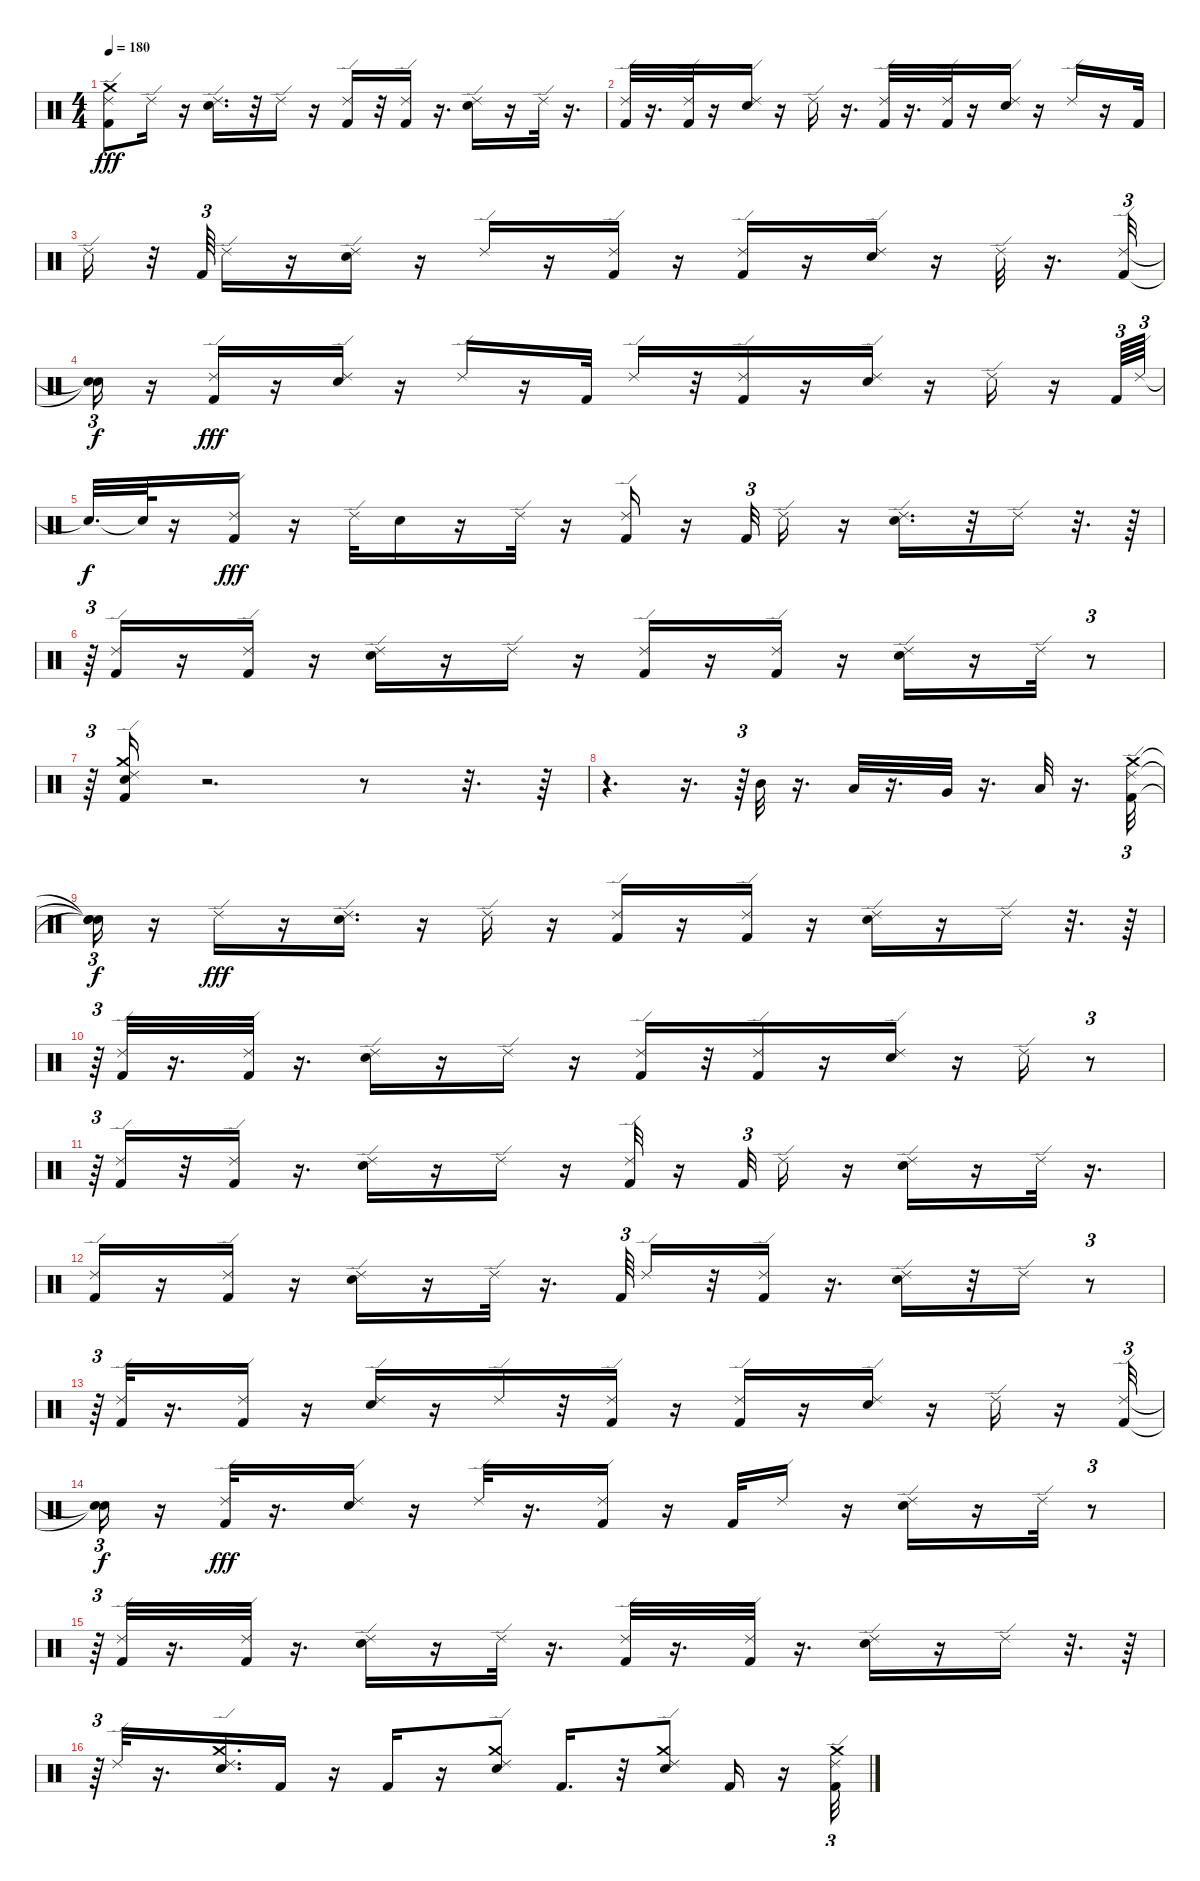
\track "" {instrument percussion}
\staff {score}
\articulation defaults
\ts (4 4)
\tempo 180
\clef neutral
\ks c
("Kick (hit) 2" "Ride (edge) 2" "Crash medium (hit)").8{dy fff} "Ride (edge) 2".16 r.16 ("Ride (edge) 2" "Snare (hit) 2").16{d} r.32 "Ride (edge) 2".16 r.16 ("Kick (hit) 2" "Ride (edge) 2").16 r.32 ("Kick (hit) 2" "Ride (edge) 2").16 r.16{d} ("Ride (edge) 2" "Snare (hit) 2").16 r.16 "Ride (edge) 2".32 r.16{d} |
("Kick (hit) 2" "Ride (edge) 2").32 r.16{d} ("Kick (hit) 2" "Ride (edge) 2").32 r.16 ("Ride (edge) 2" "Snare (hit) 2").16 r.16 "Ride (edge) 2".16 r.16{d} ("Kick (hit) 2" "Ride (edge) 2").32 r.16{d} ("Kick (hit) 2" "Ride (edge) 2").32 r.16 ("Ride (edge) 2" "Snare (hit) 2").16 r.16 "Ride (edge) 2".16 r.16 "Kick (hit) 2".32 |
"Ride (edge) 2".16 r.32 "Kick (hit) 2".64{tu (3 2)} "Ride (edge) 2".16 r.16 ("Ride (edge) 2" "Snare (hit) 2").16 r.16 "Ride (edge) 2".16 r.16 ("Kick (hit) 2" "Ride (edge) 2").16 r.16 ("Kick (hit) 2" "Ride (edge) 2").16 r.16 ("Ride (edge) 2" "Snare (hit) 2").16 r.16 "Ride (edge) 2".32 r.16{d} ("Kick (hit) 2" "Ride (edge) 2").32{tu (3 2)} |
("Snare (hit)"{t} "Snare (hit)"{t}).16{tu (3 2) dy f} r.16 ("Kick (hit) 2" "Ride (edge) 2").16{dy fff} r.16 ("Ride (edge) 2" "Snare (hit) 2").16 r.16 "Ride (edge) 2".16 r.16 "Kick (hit) 2".32 "Ride (edge) 2".16 r.32 ("Kick (hit) 2" "Ride (edge) 2").16 r.16 ("Ride (edge) 2" "Snare (hit) 2").16 r.16 "Ride (edge) 2".16 r.16 "Kick (hit) 2".64{tu (3 2)} "Ride (edge) 2".64{tu (3 2)} |
"Snare (hit)"{t}.32{d dy f} "Snare (hit)"{t}.64 r.16 ("Kick (hit) 2" "Ride (edge) 2").16{dy fff} r.16 "Ride (edge) 2".32 "Snare (hit) 2".16 r.16 "Ride (edge) 2".32 r.16 ("Kick (hit) 2" "Ride (edge) 2").16 r.16 "Kick (hit) 2".32{tu (3 2)} "Ride (edge) 2".16 r.16 ("Ride (edge) 2" "Snare (hit) 2").16{d} r.32 "Ride (edge) 2".16 r.32{d} r.64 |
r.64{tu (3 2)} ("Kick (hit) 2" "Ride (edge) 2").16 r.16 ("Kick (hit) 2" "Ride (edge) 2").16 r.16 ("Ride (edge) 2" "Snare (hit) 2").16 r.16 "Ride (edge) 2".16 r.16 ("Kick (hit) 2" "Ride (edge) 2").16 r.16 ("Kick (hit) 2" "Ride (edge) 2").16 r.16 ("Ride (edge) 2" "Snare (hit) 2").16 r.16 "Ride (edge) 2".32 r.8{tu (3 2)} |
r.64{tu (3 2)} ("Kick (hit) 2" "Ride (edge) 2" "Crash medium (hit)" "Snare (hit) 2").16 r.2{d} r.8 r.32{d} r.64 |
r.4{d} r.16{d} r.64{tu (3 2)} "Mid Tom (hit)".32 r.16{d} "Low Tom (hit)".32 r.16{d} "Very Low Tom (hit)".32 r.16{d} "Low Floor Tom (hit)".32 r.16{d} ("Kick (hit) 2" "Ride (edge) 2" "Crash medium (hit)").32{tu (3 2)} |
("Snare (hit)"{t} "Snare (hit)"{t} "Snare (hit)"{t}).16{tu (3 2) dy f} r.16 "Ride (edge) 2".16{dy fff} r.16 ("Ride (edge) 2" "Snare (hit) 2").16{d} r.16 "Ride (edge) 2".16 r.16 ("Kick (hit) 2" "Ride (edge) 2").16 r.16 ("Kick (hit) 2" "Ride (edge) 2").16 r.16 ("Ride (edge) 2" "Snare (hit) 2").16 r.16 "Ride (edge) 2".16 r.32{d} r.64 |
r.64{tu (3 2)} ("Kick (hit) 2" "Ride (edge) 2").32 r.16{d} ("Kick (hit) 2" "Ride (edge) 2").32 r.16{d} ("Ride (edge) 2" "Snare (hit) 2").16 r.16 "Ride (edge) 2".16 r.16 ("Kick (hit) 2" "Ride (edge) 2").16 r.32 ("Kick (hit) 2" "Ride (edge) 2").16 r.16 ("Ride (edge) 2" "Snare (hit) 2").16 r.16 "Ride (edge) 2".16 r.8{tu (3 2)} |
r.64{tu (3 2)} ("Kick (hit) 2" "Ride (edge) 2").16 r.32 ("Kick (hit) 2" "Ride (edge) 2").16 r.16{d} ("Ride (edge) 2" "Snare (hit) 2").16 r.16 "Ride (edge) 2".16 r.16 ("Kick (hit) 2" "Ride (edge) 2").32 r.16 "Kick (hit) 2".32{tu (3 2)} "Ride (edge) 2".16 r.16 ("Ride (edge) 2" "Snare (hit) 2").16 r.16 "Ride (edge) 2".32 r.16{d} |
("Kick (hit) 2" "Ride (edge) 2").16 r.16 ("Kick (hit) 2" "Ride (edge) 2").16 r.16 ("Ride (edge) 2" "Snare (hit) 2").16 r.16 "Ride (edge) 2".32 r.16{d} "Kick (hit) 2".64{tu (3 2)} "Ride (edge) 2".16 r.32 ("Kick (hit) 2" "Ride (edge) 2").16 r.16{d} ("Ride (edge) 2" "Snare (hit) 2").16 r.32 "Ride (edge) 2".16 r.8{tu (3 2)} |
r.64{tu (3 2)} ("Kick (hit) 2" "Ride (edge) 2").32 r.16{d} ("Kick (hit) 2" "Ride (edge) 2").16 r.16 ("Ride (edge) 2" "Snare (hit) 2").16 r.16 "Ride (edge) 2".16 r.32 ("Kick (hit) 2" "Ride (edge) 2").16 r.16 ("Kick (hit) 2" "Ride (edge) 2").16 r.16 ("Snare (hit) 2" "Ride (edge) 2").16 r.16 "Ride (edge) 2".16 r.16 ("Kick (hit) 2" "Ride (edge) 2").32{tu (3 2)} |
("Snare (hit)"{t} "Snare (hit)"{t}).16{tu (3 2) dy f} r.16 ("Kick (hit) 2" "Ride (edge) 2").32{dy fff} r.16{d} ("Ride (edge) 2" "Snare (hit) 2").16 r.16 "Ride (edge) 2".32 r.16{d} ("Kick (hit) 2" "Ride (edge) 2").16 r.16 "Kick (hit) 2".32 "Ride (edge) 2".16 r.16 ("Ride (edge) 2" "Snare (hit) 2").16 r.16 "Ride (edge) 2".32 r.8{tu (3 2)} |
r.64{tu (3 2)} ("Kick (hit) 2" "Ride (edge) 2").32 r.16{d} ("Kick (hit) 2" "Ride (edge) 2").32 r.16{d} ("Ride (edge) 2" "Snare (hit) 2").16 r.16 "Ride (edge) 2".32 r.16{d} ("Kick (hit) 2" "Ride (edge) 2").32 r.16{d} ("Kick (hit) 2" "Ride (edge) 2").32 r.16{d} ("Ride (edge) 2" "Snare (hit) 2").16 r.16 "Ride (edge) 2".16 r.32{d} r.64 |
r.64{tu (3 2)} "Ride (edge) 2".32 r.16{d} ("Snare (hit) 2" "Ride (edge) 2" "Crash medium (hit)").16{d} "Kick (hit) 2".16 r.16 "Kick (hit) 2".16 r.16 ("Ride (edge) 2" "Crash medium (hit)" "Snare (hit) 2").8 "Kick (hit) 2".16{d} r.32 ("Ride (edge) 2" "Crash medium (hit)" "Snare (hit) 2").8 "Kick (hit) 2".16 r.16 ("Kick (hit) 2" "Ride (edge) 2" "Crash medium (hit)").32{tu (3 2)}
